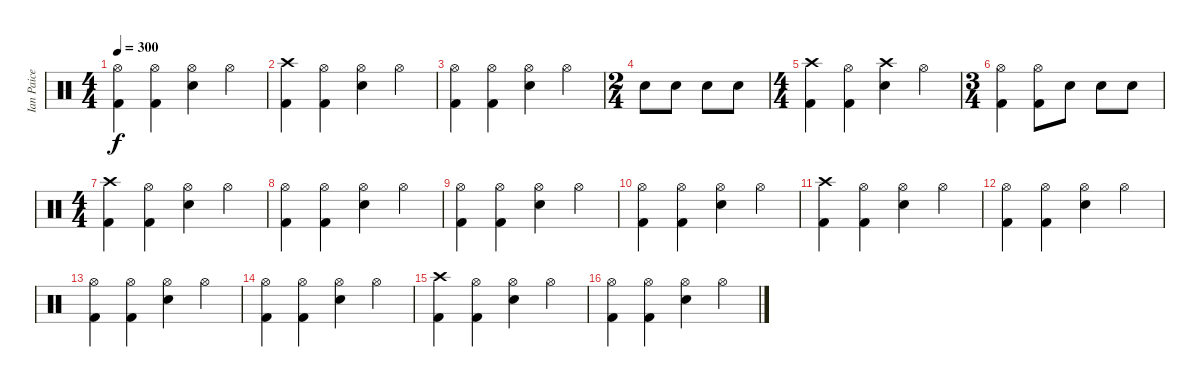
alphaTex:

\track ("Ian Paice" "Ian Paice") {instrument percussion}
\staff {score}
\articulation defaults
\ts (4 4)
\tempo 300
\clef neutral
\ks c
("Hi-Hat (open)" "Kick (hit) 2").4{dy f} ("Hi-Hat (open)" "Kick (hit) 2").4 ("Hi-Hat (open)" "Electric Snare (hit)").4 "Hi-Hat (open)".4 |
("Crash high (hit)" "Kick (hit) 2").4 ("Hi-Hat (open)" "Kick (hit) 2").4 ("Hi-Hat (open)" "Electric Snare (hit)").4 "Hi-Hat (open)".4 |
("Hi-Hat (open)" "Kick (hit) 2").4 ("Hi-Hat (open)" "Kick (hit) 2").4 ("Hi-Hat (open)" "Electric Snare (hit)").4 "Hi-Hat (open)".4 |
\ts (2 4)
"Electric Snare (hit)".8 "Electric Snare (hit)".8 "Electric Snare (hit)".8 "Electric Snare (hit)".8 |
\ts (4 4)
("Crash high (hit)" "Kick (hit) 2").4 ("Hi-Hat (open)" "Kick (hit) 2").4 ("Crash high (hit)" "Electric Snare (hit)").4 "Hi-Hat (open)".4 |
\ts (3 4)
("Hi-Hat (open)" "Kick (hit) 2").4 ("Hi-Hat (open)" "Kick (hit) 2").8 "Electric Snare (hit)".8 "Electric Snare (hit)".8 "Electric Snare (hit)".8 |
\ts (4 4)
("Crash high (hit)" "Kick (hit) 2").4 ("Hi-Hat (open)" "Kick (hit) 2").4 ("Hi-Hat (open)" "Electric Snare (hit)").4 "Hi-Hat (open)".4 |
("Hi-Hat (open)" "Kick (hit) 2").4 ("Hi-Hat (open)" "Kick (hit) 2").4 ("Hi-Hat (open)" "Electric Snare (hit)").4 "Hi-Hat (open)".4 |
("Hi-Hat (open)" "Kick (hit) 2").4 ("Hi-Hat (open)" "Kick (hit) 2").4 ("Hi-Hat (open)" "Electric Snare (hit)").4 "Hi-Hat (open)".4 |
("Hi-Hat (open)" "Kick (hit) 2").4 ("Hi-Hat (open)" "Kick (hit) 2").4 ("Hi-Hat (open)" "Electric Snare (hit)").4 "Hi-Hat (open)".4 |
("Crash high (hit)" "Kick (hit) 2").4 ("Hi-Hat (open)" "Kick (hit) 2").4 ("Hi-Hat (open)" "Electric Snare (hit)").4 "Hi-Hat (open)".4 |
("Hi-Hat (open)" "Kick (hit) 2").4 ("Hi-Hat (open)" "Kick (hit) 2").4 ("Hi-Hat (open)" "Electric Snare (hit)").4 "Hi-Hat (open)".4 |
("Hi-Hat (open)" "Kick (hit) 2").4 ("Hi-Hat (open)" "Kick (hit) 2").4 ("Hi-Hat (open)" "Electric Snare (hit)").4 "Hi-Hat (open)".4 |
("Hi-Hat (open)" "Kick (hit) 2").4 ("Hi-Hat (open)" "Kick (hit) 2").4 ("Hi-Hat (open)" "Electric Snare (hit)").4 "Hi-Hat (open)".4 |
("Crash high (hit)" "Kick (hit) 2").4 ("Hi-Hat (open)" "Kick (hit) 2").4 ("Hi-Hat (open)" "Electric Snare (hit)").4 "Hi-Hat (open)".4 |
("Hi-Hat (open)" "Kick (hit) 2").4 ("Hi-Hat (open)" "Kick (hit) 2").4 ("Hi-Hat (open)" "Electric Snare (hit)").4 "Hi-Hat (open)".4
